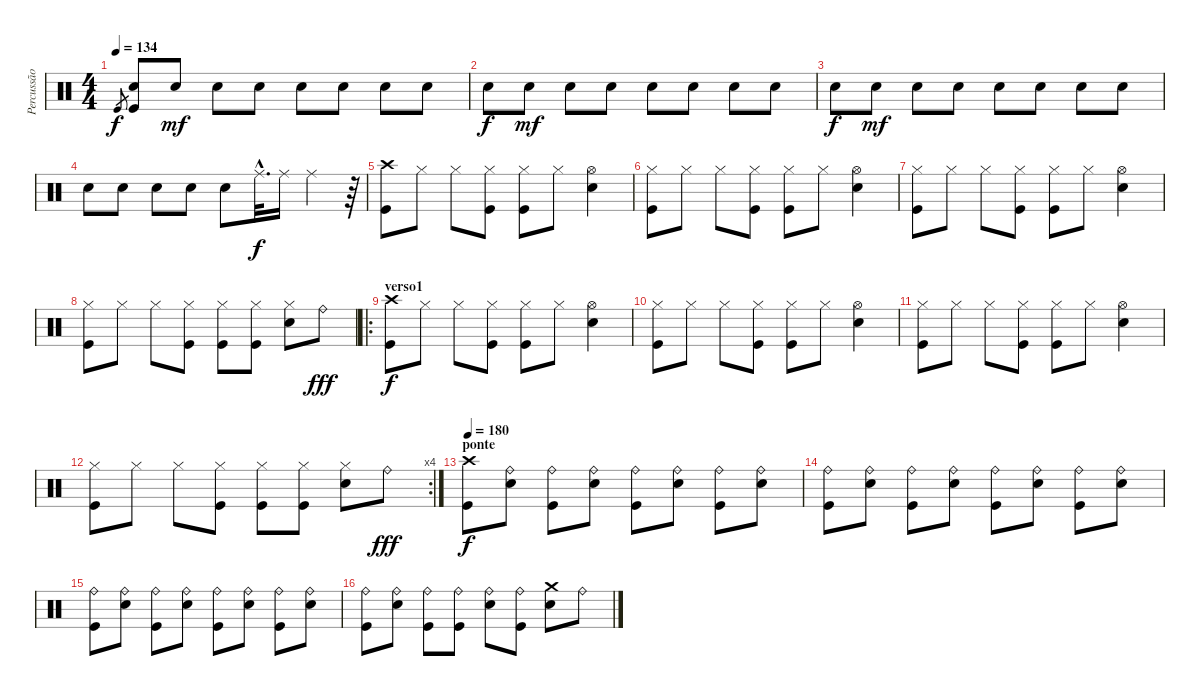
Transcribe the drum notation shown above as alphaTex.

\track ("Percussão" "Percussão") {instrument percussion}
\staff {score}
\articulation defaults
\ts (4 4)
\tempo 134
\clef neutral
\ks c "Kick (hit)".8{gr dy f}
("Snare (hit) 2" "Kick (hit)").8 "Snare (hit) 2".8{dy mf} "Snare (hit) 2".8 "Snare (hit) 2".8 "Snare (hit) 2".8 "Snare (hit) 2".8 "Snare (hit) 2".8 "Snare (hit) 2".8 |
"Snare (hit) 2".8{dy f} "Snare (hit) 2".8{dy mf} "Snare (hit) 2".8 "Snare (hit) 2".8 "Snare (hit) 2".8 "Snare (hit) 2".8 "Snare (hit) 2".8 "Snare (hit) 2".8 |
"Snare (hit) 2".8{dy f} "Snare (hit) 2".8{dy mf} "Snare (hit) 2".8 "Snare (hit) 2".8 "Snare (hit) 2".8 "Snare (hit) 2".8 "Snare (hit) 2".8 "Snare (hit) 2".8 |
"Snare (hit) 2".8 "Snare (hit) 2".8 "Snare (hit) 2".8 "Snare (hit) 2".8 "Snare (hit) 2".8 "Ride (middle)"{hac}.32{d dy f} "Ride (middle)".16 "Ride (middle)".4 r.64 |
("Crash high (hit)" "Kick (hit)").8 "Hi-Hat (closed)".8 "Hi-Hat (closed)".8 ("Hi-Hat (closed)" "Kick (hit)").8 ("Hi-Hat (closed)" "Kick (hit)").8 "Hi-Hat (closed)".8 ("Hi-Hat (open)" "Snare (hit) 2").4 |
("Hi-Hat (closed)" "Kick (hit)").8 "Hi-Hat (closed)".8 "Hi-Hat (closed)".8 ("Hi-Hat (closed)" "Kick (hit)").8 ("Hi-Hat (closed)" "Kick (hit)").8 "Hi-Hat (closed)".8 ("Hi-Hat (open)" "Snare (hit) 2").4 |
("Hi-Hat (closed)" "Kick (hit)").8 "Hi-Hat (closed)".8 "Hi-Hat (closed)".8 ("Hi-Hat (closed)" "Kick (hit)").8 ("Hi-Hat (closed)" "Kick (hit)").8 "Hi-Hat (closed)".8 ("Hi-Hat (open)" "Snare (hit) 2").4 |
("Hi-Hat (closed)" "Kick (hit)").8 "Hi-Hat (closed)".8 "Hi-Hat (closed)".8 ("Hi-Hat (closed)" "Kick (hit)").8 ("Hi-Hat (closed)" "Kick (hit)").8 ("Hi-Hat (closed)" "Kick (hit)").8 ("Hi-Hat (closed)" "Snare (hit) 2").8 "Ride (bell)".8{dy fff} |
\ro
\section ("" "verso1")
("Crash high (hit)" "Kick (hit)").8{dy f} "Hi-Hat (closed)".8 "Hi-Hat (closed)".8 ("Hi-Hat (closed)" "Kick (hit)").8 ("Hi-Hat (closed)" "Kick (hit)").8 "Hi-Hat (closed)".8 ("Hi-Hat (open)" "Snare (hit) 2").4 |
("Hi-Hat (closed)" "Kick (hit)").8 "Hi-Hat (closed)".8 "Hi-Hat (closed)".8 ("Hi-Hat (closed)" "Kick (hit)").8 ("Hi-Hat (closed)" "Kick (hit)").8 "Hi-Hat (closed)".8 ("Hi-Hat (open)" "Snare (hit) 2").4 |
("Hi-Hat (closed)" "Kick (hit)").8 "Hi-Hat (closed)".8 "Hi-Hat (closed)".8 ("Hi-Hat (closed)" "Kick (hit)").8 ("Hi-Hat (closed)" "Kick (hit)").8 "Hi-Hat (closed)".8 ("Hi-Hat (open)" "Snare (hit) 2").4 |
\rc 4
("Hi-Hat (closed)" "Kick (hit)").8 "Hi-Hat (closed)".8 "Hi-Hat (closed)".8 ("Hi-Hat (closed)" "Kick (hit)").8 ("Hi-Hat (closed)" "Kick (hit)").8 ("Hi-Hat (closed)" "Kick (hit)").8 ("Hi-Hat (closed)" "Snare (hit) 2").8 "Ride (bell)".8{dy fff} |
\section ("" "ponte")
\tempo 180
("Crash high (hit)" "Kick (hit)").8{dy f} ("Ride (bell)" "Snare (hit) 2").8 ("Ride (bell)" "Kick (hit)").8 ("Ride (bell)" "Snare (hit) 2").8 ("Ride (bell)" "Kick (hit)").8 ("Ride (bell)" "Snare (hit) 2").8 ("Ride (bell)" "Kick (hit)").8 ("Ride (bell)" "Snare (hit) 2").8 |
("Ride (bell)" "Kick (hit)").8 ("Ride (bell)" "Snare (hit) 2").8 ("Ride (bell)" "Kick (hit)").8 ("Ride (bell)" "Snare (hit) 2").8 ("Ride (bell)" "Kick (hit)").8 ("Ride (bell)" "Snare (hit) 2").8 ("Ride (bell)" "Kick (hit)").8 ("Ride (bell)" "Snare (hit) 2").8 |
("Ride (bell)" "Kick (hit)").8 ("Ride (bell)" "Snare (hit) 2").8 ("Ride (bell)" "Kick (hit)").8 ("Ride (bell)" "Snare (hit) 2").8 ("Ride (bell)" "Kick (hit)").8 ("Ride (bell)" "Snare (hit) 2").8 ("Ride (bell)" "Kick (hit)").8 ("Ride (bell)" "Snare (hit) 2").8 |
("Ride (bell)" "Kick (hit)").8 ("Ride (bell)" "Snare (hit) 2").8 ("Ride (bell)" "Kick (hit)").8 ("Ride (bell)" "Kick (hit)").8 ("Ride (bell)" "Snare (hit) 2").8 ("Ride (bell)" "Kick (hit)").8 ("Crash medium (hit)" "Snare (hit) 2").8 "Ride (bell)".8
